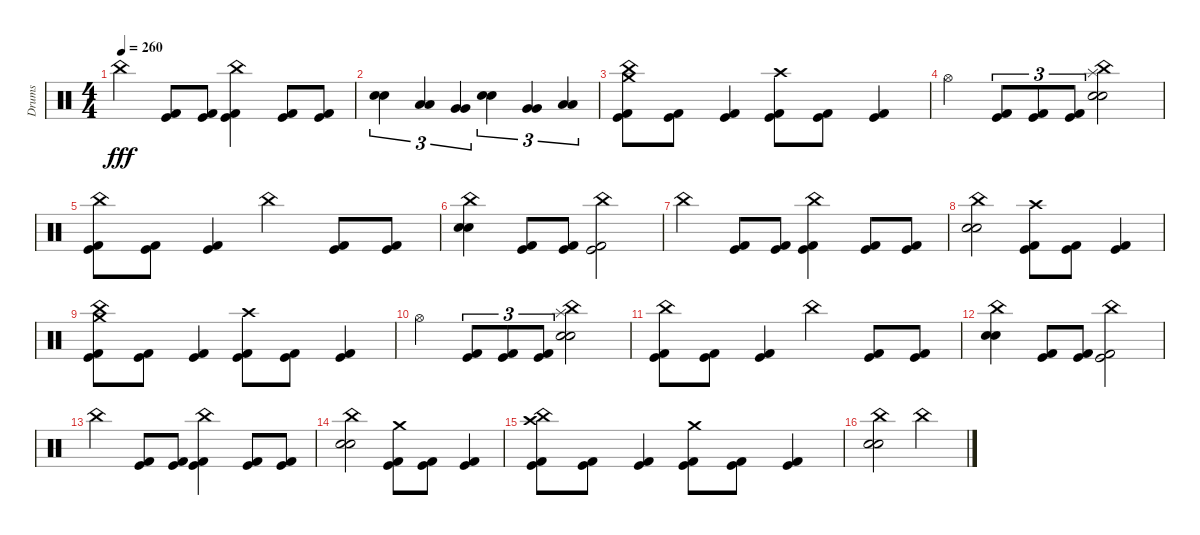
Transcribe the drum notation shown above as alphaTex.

\track ("Drums" "Drums") {instrument percussion}
\staff {score}
\articulation defaults
\ts (4 4)
\tempo 260
\clef neutral
\ks c "China (hit)".4{dy fff}
("Kick (hit)" "Kick (hit) 2").8 ("Kick (hit)" "Kick (hit) 2").8 ("Kick (hit)" "Kick (hit) 2" "China (hit)").4 ("Kick (hit)" "Kick (hit) 2").8 ("Kick (hit)" "Kick (hit) 2").8 |
("Electric Snare (hit)" "Electric Snare (hit)").4{tu (3 2)} ("Low Tom (hit)" "Low Tom (hit)").4{tu (3 2)} ("Very Low Tom (hit)" "Very Low Tom (hit)").4{tu (3 2)} ("Electric Snare (hit)" "Electric Snare (hit)").4{tu (3 2)} ("Very Low Tom (hit)" "Very Low Tom (hit)").4{tu (3 2)} ("Low Floor Tom (hit)" "Low Floor Tom (hit)").4{tu (3 2)} |
("Kick (hit)" "Kick (hit) 2" "China (hit)" "Crash medium (hit)").8 ("Kick (hit)" "Kick (hit) 2").8 ("Kick (hit)" "Kick (hit) 2").4 ("Kick (hit)" "Kick (hit) 2" "Crash high (hit)").8 ("Kick (hit)" "Kick (hit) 2").8 ("Kick (hit)" "Kick (hit) 2").4 |
"Hi-Hat (open)".4 ("Kick (hit)" "Kick (hit) 2").8{tu (3 2)} ("Kick (hit)" "Kick (hit) 2").8{tu (3 2)} ("Kick (hit)" "Kick (hit) 2").8{tu (3 2)} ("Electric Snare (hit)" "Electric Snare (hit)" "China (hit)" "Splash (hit)").2 |
("Kick (hit)" "Kick (hit) 2" "China (hit)").8 ("Kick (hit)" "Kick (hit) 2").8 ("Kick (hit)" "Kick (hit) 2").4 "China (hit)".4 ("Kick (hit)" "Kick (hit) 2").8 ("Kick (hit)" "Kick (hit) 2").8 |
("Electric Snare (hit)" "Electric Snare (hit)" "China (hit)").4 ("Kick (hit)" "Kick (hit) 2").8 ("Kick (hit)" "Kick (hit) 2").8 ("Kick (hit)" "Kick (hit) 2" "China (hit)").2 |
"China (hit)".4 ("Kick (hit)" "Kick (hit) 2").8 ("Kick (hit)" "Kick (hit) 2").8 ("Kick (hit)" "Kick (hit) 2" "China (hit)").4 ("Kick (hit)" "Kick (hit) 2").8 ("Kick (hit)" "Kick (hit) 2").8 |
("Electric Snare (hit)" "Electric Snare (hit)" "China (hit)").2 ("Kick (hit)" "Kick (hit) 2" "Crash high (hit)").8 ("Kick (hit)" "Kick (hit) 2").8 ("Kick (hit)" "Kick (hit) 2").4 |
("Kick (hit)" "Kick (hit) 2" "China (hit)" "Crash medium (hit)").8 ("Kick (hit)" "Kick (hit) 2").8 ("Kick (hit)" "Kick (hit) 2").4 ("Kick (hit)" "Kick (hit) 2" "Crash high (hit)").8 ("Kick (hit)" "Kick (hit) 2").8 ("Kick (hit)" "Kick (hit) 2").4 |
"Hi-Hat (open)".4 ("Kick (hit)" "Kick (hit) 2").8{tu (3 2)} ("Kick (hit)" "Kick (hit) 2").8{tu (3 2)} ("Kick (hit)" "Kick (hit) 2").8{tu (3 2)} ("Electric Snare (hit)" "Electric Snare (hit)" "China (hit)" "Splash (hit)").2 |
("Kick (hit)" "Kick (hit) 2" "China (hit)").8 ("Kick (hit)" "Kick (hit) 2").8 ("Kick (hit)" "Kick (hit) 2").4 "China (hit)".4 ("Kick (hit)" "Kick (hit) 2").8 ("Kick (hit)" "Kick (hit) 2").8 |
("Electric Snare (hit)" "Electric Snare (hit)" "China (hit)").4 ("Kick (hit)" "Kick (hit) 2").8 ("Kick (hit)" "Kick (hit) 2").8 ("Kick (hit)" "Kick (hit) 2" "China (hit)").2 |
"China (hit)".4 ("Kick (hit)" "Kick (hit) 2").8 ("Kick (hit)" "Kick (hit) 2").8 ("Kick (hit)" "Kick (hit) 2" "China (hit)").4 ("Kick (hit)" "Kick (hit) 2").8 ("Kick (hit)" "Kick (hit) 2").8 |
("Electric Snare (hit)" "Electric Snare (hit)" "China (hit)").2 ("Kick (hit)" "Kick (hit) 2" "Crash medium (hit)").8 ("Kick (hit)" "Kick (hit) 2").8 ("Kick (hit)" "Kick (hit) 2").4 |
("Kick (hit)" "Kick (hit) 2" "China (hit)" "Crash high (hit)").8 ("Kick (hit)" "Kick (hit) 2").8 ("Kick (hit)" "Kick (hit) 2").4 ("Kick (hit)" "Kick (hit) 2" "Crash medium (hit)").8 ("Kick (hit)" "Kick (hit) 2").8 ("Kick (hit)" "Kick (hit) 2").4 |
("Electric Snare (hit)" "Electric Snare (hit)" "China (hit)").2 "China (hit)".2
